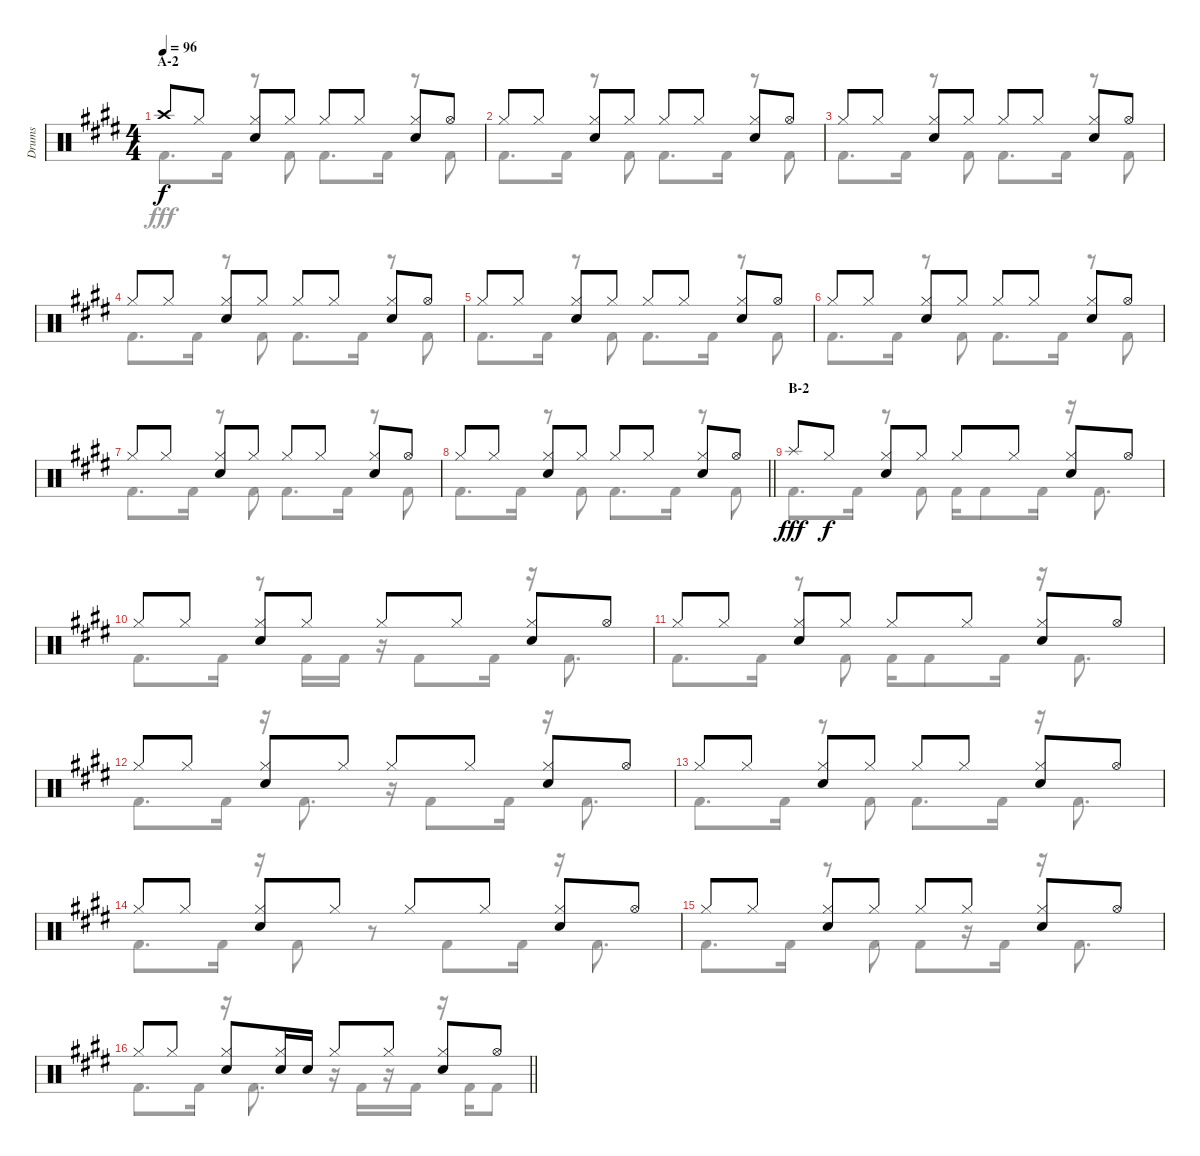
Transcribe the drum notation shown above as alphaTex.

\track ("Drums" "Drums") {instrument percussion}
\staff {score}
\articulation defaults
\voice
\ts (4 4)
\section ("" "A-2")
\tempo 96
\clef neutral
\ks e "Crash high (hit)".8{dy f} "Hi-Hat (closed)".8
("Hi-Hat (closed)" "Snare (hit) 2").8 "Hi-Hat (closed)".8 "Hi-Hat (closed)".8 "Hi-Hat (closed)".8 ("Hi-Hat (closed)" "Snare (hit) 2").8 "Hi-Hat (open)".8 |
"Hi-Hat (closed)".8 "Hi-Hat (closed)".8 ("Hi-Hat (closed)" "Snare (hit) 2").8 "Hi-Hat (closed)".8 "Hi-Hat (closed)".8 "Hi-Hat (closed)".8 ("Hi-Hat (closed)" "Snare (hit) 2").8 "Hi-Hat (open)".8 |
"Hi-Hat (closed)".8 "Hi-Hat (closed)".8 ("Hi-Hat (closed)" "Snare (hit) 2").8 "Hi-Hat (closed)".8 "Hi-Hat (closed)".8 "Hi-Hat (closed)".8 ("Hi-Hat (closed)" "Snare (hit) 2").8 "Hi-Hat (open)".8 |
"Hi-Hat (closed)".8 "Hi-Hat (closed)".8 ("Hi-Hat (closed)" "Snare (hit) 2").8 "Hi-Hat (closed)".8 "Hi-Hat (closed)".8 "Hi-Hat (closed)".8 ("Hi-Hat (closed)" "Snare (hit) 2").8 "Hi-Hat (open)".8 |
"Hi-Hat (closed)".8 "Hi-Hat (closed)".8 ("Hi-Hat (closed)" "Snare (hit) 2").8 "Hi-Hat (closed)".8 "Hi-Hat (closed)".8 "Hi-Hat (closed)".8 ("Hi-Hat (closed)" "Snare (hit) 2").8 "Hi-Hat (open)".8 |
"Hi-Hat (closed)".8 "Hi-Hat (closed)".8 ("Hi-Hat (closed)" "Snare (hit) 2").8 "Hi-Hat (closed)".8 "Hi-Hat (closed)".8 "Hi-Hat (closed)".8 ("Hi-Hat (closed)" "Snare (hit) 2").8 "Hi-Hat (open)".8 |
"Hi-Hat (closed)".8 "Hi-Hat (closed)".8 ("Hi-Hat (closed)" "Snare (hit) 2").8 "Hi-Hat (closed)".8 "Hi-Hat (closed)".8 "Hi-Hat (closed)".8 ("Hi-Hat (closed)" "Snare (hit) 2").8 "Hi-Hat (open)".8 |
\barLineRight lightlight "Hi-Hat (closed)".8 "Hi-Hat (closed)".8
("Hi-Hat (closed)" "Snare (hit) 2").8 "Hi-Hat (closed)".8 "Hi-Hat (closed)".8 "Hi-Hat (closed)".8 ("Hi-Hat (closed)" "Snare (hit) 2").8 "Hi-Hat (open)".8 |
\section ("" "B-2")
"Splash (hit)".8{dy fff} "Hi-Hat (closed)".8{dy f} ("Hi-Hat (closed)" "Snare (hit) 2").8 "Hi-Hat (closed)".8 "Hi-Hat (closed)".8 "Hi-Hat (closed)".8 ("Hi-Hat (closed)" "Snare (hit) 2").8 "Hi-Hat (open)".8 |
"Hi-Hat (closed)".8 "Hi-Hat (closed)".8 ("Hi-Hat (closed)" "Snare (hit) 2").8 "Hi-Hat (closed)".8 "Hi-Hat (closed)".8 "Hi-Hat (closed)".8 ("Hi-Hat (closed)" "Snare (hit) 2").8 "Hi-Hat (open)".8 |
"Hi-Hat (closed)".8 "Hi-Hat (closed)".8 ("Hi-Hat (closed)" "Snare (hit) 2").8 "Hi-Hat (closed)".8 "Hi-Hat (closed)".8 "Hi-Hat (closed)".8 ("Hi-Hat (closed)" "Snare (hit) 2").8 "Hi-Hat (open)".8 |
"Hi-Hat (closed)".8 "Hi-Hat (closed)".8 ("Hi-Hat (closed)" "Snare (hit) 2").8 "Hi-Hat (closed)".8 "Hi-Hat (closed)".8 "Hi-Hat (closed)".8 ("Hi-Hat (closed)" "Snare (hit) 2").8 "Hi-Hat (open)".8 |
"Hi-Hat (closed)".8 "Hi-Hat (closed)".8 ("Hi-Hat (closed)" "Snare (hit) 2").8 "Hi-Hat (closed)".8 "Hi-Hat (closed)".8 "Hi-Hat (closed)".8 ("Hi-Hat (closed)" "Snare (hit) 2").8 "Hi-Hat (open)".8 |
"Hi-Hat (closed)".8 "Hi-Hat (closed)".8 ("Hi-Hat (closed)" "Snare (hit) 2").8 "Hi-Hat (closed)".8 "Hi-Hat (closed)".8 "Hi-Hat (closed)".8 ("Hi-Hat (closed)" "Snare (hit) 2").8 "Hi-Hat (open)".8 |
"Hi-Hat (closed)".8 "Hi-Hat (closed)".8 ("Hi-Hat (closed)" "Snare (hit) 2").8 "Hi-Hat (closed)".8 "Hi-Hat (closed)".8 "Hi-Hat (closed)".8 ("Hi-Hat (closed)" "Snare (hit) 2").8 "Hi-Hat (open)".8 |
\barLineRight lightlight "Hi-Hat (closed)".8 "Hi-Hat (closed)".8
("Hi-Hat (closed)" "Snare (hit) 2").8 ("Hi-Hat (closed)" "Snare (hit) 2").16 "Snare (hit) 2".16 "Hi-Hat (closed)".8 "Hi-Hat (closed)".8 ("Hi-Hat (closed)" "Snare (hit) 2").8 "Hi-Hat (open)".8
\voice
\clef neutral
\ottava regular
\simile none
\ks e "Kick (hit) 2".8{d dy fff} "Kick (hit) 2".16
r.8 "Kick (hit) 2".8 "Kick (hit) 2".8{d} "Kick (hit) 2".16 r.8 "Kick (hit) 2".8 |
"Kick (hit) 2".8{d} "Kick (hit) 2".16 r.8 "Kick (hit) 2".8 "Kick (hit) 2".8{d} "Kick (hit) 2".16 r.8 "Kick (hit) 2".8 |
"Kick (hit) 2".8{d} "Kick (hit) 2".16 r.8 "Kick (hit) 2".8 "Kick (hit) 2".8{d} "Kick (hit) 2".16 r.8 "Kick (hit) 2".8 |
"Kick (hit) 2".8{d} "Kick (hit) 2".16 r.8 "Kick (hit) 2".8 "Kick (hit) 2".8{d} "Kick (hit) 2".16 r.8 "Kick (hit) 2".8 |
"Kick (hit) 2".8{d} "Kick (hit) 2".16 r.8 "Kick (hit) 2".8 "Kick (hit) 2".8{d} "Kick (hit) 2".16 r.8 "Kick (hit) 2".8 |
"Kick (hit) 2".8{d} "Kick (hit) 2".16 r.8 "Kick (hit) 2".8 "Kick (hit) 2".8{d} "Kick (hit) 2".16 r.8 "Kick (hit) 2".8 |
"Kick (hit) 2".8{d} "Kick (hit) 2".16 r.8 "Kick (hit) 2".8 "Kick (hit) 2".8{d} "Kick (hit) 2".16 r.8 "Kick (hit) 2".8 |
\barLineRight lightlight "Kick (hit) 2".8{d} "Kick (hit) 2".16
r.8 "Kick (hit) 2".8 "Kick (hit) 2".8{d} "Kick (hit) 2".16 r.8 "Kick (hit) 2".8 |
"Kick (hit) 2".8{d} "Kick (hit) 2".16 r.8 "Kick (hit) 2".8 "Kick (hit) 2".16 "Kick (hit) 2".8 "Kick (hit) 2".16 r.16 "Kick (hit) 2".8{d} |
"Kick (hit) 2".8{d} "Kick (hit) 2".16 r.8 "Kick (hit) 2".16 "Kick (hit) 2".16 r.16 "Kick (hit) 2".8 "Kick (hit) 2".16 r.16 "Kick (hit) 2".8{d} |
"Kick (hit) 2".8{d} "Kick (hit) 2".16 r.8 "Kick (hit) 2".8 "Kick (hit) 2".16 "Kick (hit) 2".8 "Kick (hit) 2".16 r.16 "Kick (hit) 2".8{d} |
"Kick (hit) 2".8{d} "Kick (hit) 2".16 r.16 "Kick (hit) 2".8{d} r.16 "Kick (hit) 2".8 "Kick (hit) 2".16 r.16 "Kick (hit) 2".8{d} |
"Kick (hit) 2".8{d} "Kick (hit) 2".16 r.8 "Kick (hit) 2".8 "Kick (hit) 2".8{d} "Kick (hit) 2".16 r.16 "Kick (hit) 2".8{d} |
"Kick (hit) 2".8{d} "Kick (hit) 2".16 r.16 "Kick (hit) 2".8 r.8 "Kick (hit) 2".8 "Kick (hit) 2".16 r.16 "Kick (hit) 2".8{d} |
"Kick (hit) 2".8{d} "Kick (hit) 2".16 r.8 "Kick (hit) 2".8 "Kick (hit) 2".8 r.16 "Kick (hit) 2".16 r.16 "Kick (hit) 2".8{d} |
\barLineRight lightlight "Kick (hit) 2".8{d} "Kick (hit) 2".16
r.16 "Kick (hit) 2".8{d} r.16 "Kick (hit) 2".16 r.16 "Kick (hit) 2".16 r.16 "Kick (hit) 2".16 "Kick (hit) 2".8
